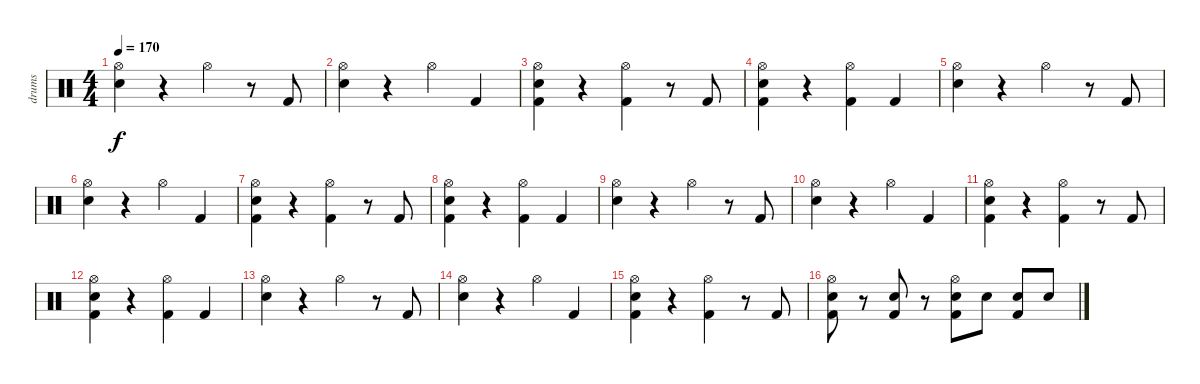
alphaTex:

\track ("drums" "drums") {instrument percussion}
\staff {score}
\articulation defaults
\ts (4 4)
\tempo 170
\clef neutral
\ks c
("Hi-Hat (open)" "Electric Snare (hit)").4{dy f} r.4 "Hi-Hat (open)".4 r.8 "Kick (hit) 2".8 |
("Hi-Hat (open)" "Electric Snare (hit)").4 r.4 "Hi-Hat (open)".4 "Kick (hit) 2".4 |
("Hi-Hat (open)" "Electric Snare (hit)" "Kick (hit) 2").4 r.4 ("Hi-Hat (open)" "Kick (hit) 2").4 r.8 "Kick (hit) 2".8 |
("Hi-Hat (open)" "Electric Snare (hit)" "Kick (hit) 2").4 r.4 ("Hi-Hat (open)" "Kick (hit) 2").4 "Kick (hit) 2".4 |
("Hi-Hat (open)" "Electric Snare (hit)").4 r.4 "Hi-Hat (open)".4 r.8 "Kick (hit) 2".8 |
("Hi-Hat (open)" "Electric Snare (hit)").4 r.4 "Hi-Hat (open)".4 "Kick (hit) 2".4 |
("Hi-Hat (open)" "Electric Snare (hit)" "Kick (hit) 2").4 r.4 ("Hi-Hat (open)" "Kick (hit) 2").4 r.8 "Kick (hit) 2".8 |
("Hi-Hat (open)" "Electric Snare (hit)" "Kick (hit) 2").4 r.4 ("Hi-Hat (open)" "Kick (hit) 2").4 "Kick (hit) 2".4 |
("Hi-Hat (open)" "Electric Snare (hit)").4 r.4 "Hi-Hat (open)".4 r.8 "Kick (hit) 2".8 |
("Hi-Hat (open)" "Electric Snare (hit)").4 r.4 "Hi-Hat (open)".4 "Kick (hit) 2".4 |
("Hi-Hat (open)" "Electric Snare (hit)" "Kick (hit) 2").4 r.4 ("Hi-Hat (open)" "Kick (hit) 2").4 r.8 "Kick (hit) 2".8 |
("Hi-Hat (open)" "Electric Snare (hit)" "Kick (hit) 2").4 r.4 ("Hi-Hat (open)" "Kick (hit) 2").4 "Kick (hit) 2".4 |
("Hi-Hat (open)" "Electric Snare (hit)").4 r.4 "Hi-Hat (open)".4 r.8 "Kick (hit) 2".8 |
("Hi-Hat (open)" "Electric Snare (hit)").4 r.4 "Hi-Hat (open)".4 "Kick (hit) 2".4 |
("Hi-Hat (open)" "Electric Snare (hit)" "Kick (hit) 2").4 r.4 ("Hi-Hat (open)" "Kick (hit) 2").4 r.8 "Kick (hit) 2".8 |
("Hi-Hat (open)" "Electric Snare (hit)" "Kick (hit) 2").8 r.8 ("Electric Snare (hit)" "Kick (hit) 2").8 r.8 ("Hi-Hat (open)" "Electric Snare (hit)" "Kick (hit) 2").8 "Electric Snare (hit)".8 ("Electric Snare (hit)" "Kick (hit) 2").8 "Electric Snare (hit)".8
